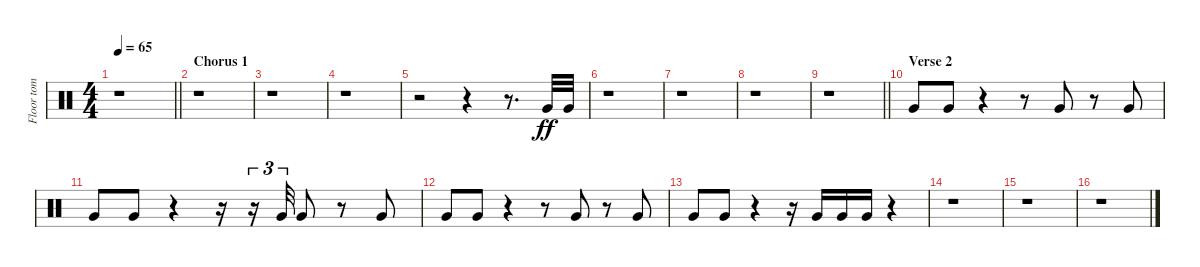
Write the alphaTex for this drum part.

\track ("Floor tom" "Floor tom") {instrument percussion}
\staff {score}
\articulation defaults
\ts (4 4)
\tempo 65
\clef neutral
\barLineRight lightlight
\ks c
r.1{dy ff} |
\section ("" "Chorus 1")
r.1 |
r.1 |
r.1 |
r.2 r.4 r.8{d} "Very Low Tom (hit)".32 "Very Low Tom (hit)".32 |
r.1 |
r.1 |
r.1 |
\barLineRight lightlight
r.1 |
\section ("" "Verse 2")
"Very Low Tom (hit)".8 "Very Low Tom (hit)".8 r.4 r.8 "Very Low Tom (hit)".8 r.8 "Very Low Tom (hit)".8 |
"Very Low Tom (hit)".8 "Very Low Tom (hit)".8 r.4 r.16 r.16{tu (3 2)} "Very Low Tom (hit)".32{tu (3 2)} "Very Low Tom (hit)".8 r.8 "Very Low Tom (hit)".8 |
"Very Low Tom (hit)".8 "Very Low Tom (hit)".8 r.4 r.8 "Very Low Tom (hit)".8 r.8 "Very Low Tom (hit)".8 |
"Very Low Tom (hit)".8 "Very Low Tom (hit)".8 r.4 r.16 "Very Low Tom (hit)".16 "Very Low Tom (hit)".16 "Very Low Tom (hit)".16 r.4 |
r.1 |
r.1 |
r.1
